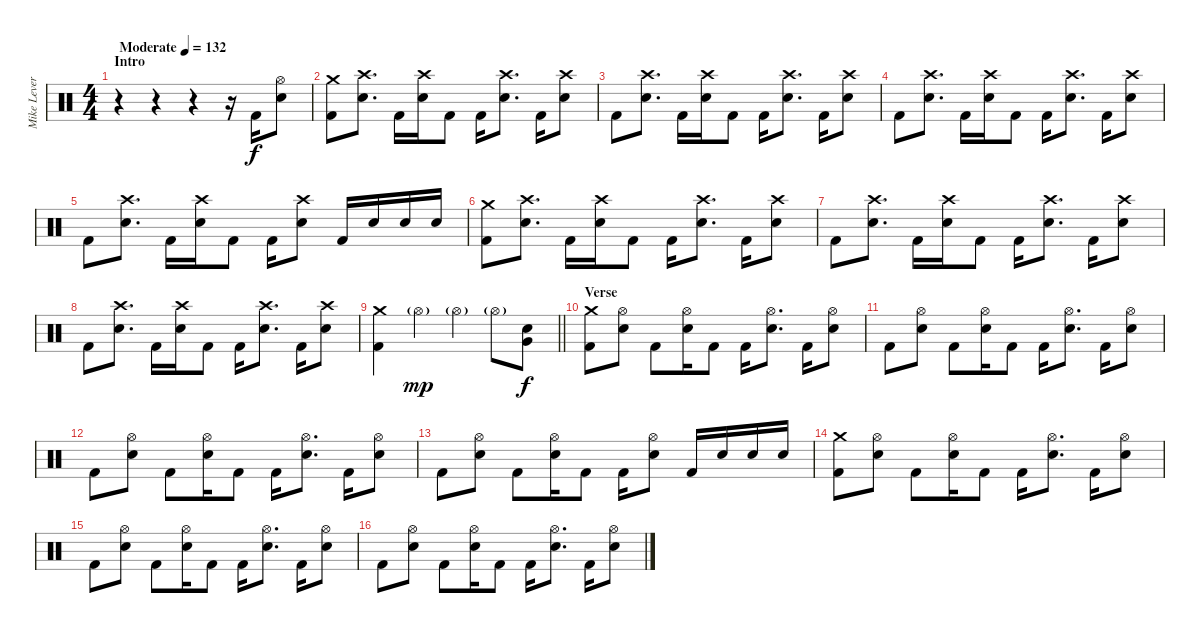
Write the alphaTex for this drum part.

\track ("Mike Leverence - Drums" "Mike Lever") {instrument percussion}
\staff {score}
\articulation defaults
\ts (4 4)
\section ("" "Intro")
\tempo (132 "Moderate")
\clef neutral
\ks c
r.4{dy f} r.4 r.4 r.16 "Kick (hit) 2".16 ("Hi-Hat (open)" "Electric Snare (hit)").8 |
("Crash medium (hit)" "Kick (hit) 2").8 ("Crash high (hit)" "Electric Snare (hit)").8{d} "Kick (hit) 2".16 ("Crash high (hit)" "Electric Snare (hit)").16 "Kick (hit) 2".8 "Kick (hit) 2".16 ("Crash high (hit)" "Electric Snare (hit)").8{d} "Kick (hit) 2".16 ("Crash high (hit)" "Electric Snare (hit)").8 |
"Kick (hit) 2".8 ("Crash high (hit)" "Electric Snare (hit)").8{d} "Kick (hit) 2".16 ("Crash high (hit)" "Electric Snare (hit)").16 "Kick (hit) 2".8 "Kick (hit) 2".16 ("Crash high (hit)" "Electric Snare (hit)").8{d} "Kick (hit) 2".16 ("Crash high (hit)" "Electric Snare (hit)").8 |
"Kick (hit) 2".8 ("Crash high (hit)" "Electric Snare (hit)").8{d} "Kick (hit) 2".16 ("Crash high (hit)" "Electric Snare (hit)").16 "Kick (hit) 2".8 "Kick (hit) 2".16 ("Crash high (hit)" "Electric Snare (hit)").8{d} "Kick (hit) 2".16 ("Crash high (hit)" "Electric Snare (hit)").8 |
"Kick (hit) 2".8 ("Crash high (hit)" "Electric Snare (hit)").8{d} "Kick (hit) 2".16 ("Crash high (hit)" "Electric Snare (hit)").16 "Kick (hit) 2".8 "Kick (hit) 2".16 ("Crash high (hit)" "Electric Snare (hit)").8 "Kick (hit) 2".16 "Electric Snare (hit)".16 "Electric Snare (hit)".16 "Electric Snare (hit)".16 |
("Crash medium (hit)" "Kick (hit) 2").8 ("Crash high (hit)" "Electric Snare (hit)").8{d} "Kick (hit) 2".16 ("Crash high (hit)" "Electric Snare (hit)").16 "Kick (hit) 2".8 "Kick (hit) 2".16 ("Crash high (hit)" "Electric Snare (hit)").8{d} "Kick (hit) 2".16 ("Crash high (hit)" "Electric Snare (hit)").8 |
"Kick (hit) 2".8 ("Crash high (hit)" "Electric Snare (hit)").8{d} "Kick (hit) 2".16 ("Crash high (hit)" "Electric Snare (hit)").16 "Kick (hit) 2".8 "Kick (hit) 2".16 ("Crash high (hit)" "Electric Snare (hit)").8{d} "Kick (hit) 2".16 ("Crash high (hit)" "Electric Snare (hit)").8 |
"Kick (hit) 2".8 ("Crash high (hit)" "Electric Snare (hit)").8{d} "Kick (hit) 2".16 ("Crash high (hit)" "Electric Snare (hit)").16 "Kick (hit) 2".8 "Kick (hit) 2".16 ("Crash high (hit)" "Electric Snare (hit)").8{d} "Kick (hit) 2".16 ("Crash high (hit)" "Electric Snare (hit)").8 |
\barLineRight lightlight
("Crash medium (hit)" "Kick (hit) 2").4 "Hi-Hat (open)"{g}.4{dy mp} "Hi-Hat (open)"{g}.4 "Hi-Hat (open)"{g}.8 ("Electric Snare (hit)" "Very Low Tom (hit)").8{dy f} |
\section ("" "Verse ")
("Crash medium (hit)" "Kick (hit) 2").8 ("Hi-Hat (open)" "Electric Snare (hit)").8 "Kick (hit) 2".8 ("Hi-Hat (open)" "Electric Snare (hit)").16 "Kick (hit) 2".8 "Kick (hit) 2".16 ("Hi-Hat (open)" "Electric Snare (hit)").8{d} "Kick (hit) 2".16 ("Hi-Hat (open)" "Electric Snare (hit)").8 |
"Kick (hit) 2".8 ("Hi-Hat (open)" "Electric Snare (hit)").8 "Kick (hit) 2".8 ("Hi-Hat (open)" "Electric Snare (hit)").16 "Kick (hit) 2".8 "Kick (hit) 2".16 ("Hi-Hat (open)" "Electric Snare (hit)").8{d} "Kick (hit) 2".16 ("Hi-Hat (open)" "Electric Snare (hit)").8 |
"Kick (hit) 2".8 ("Hi-Hat (open)" "Electric Snare (hit)").8 "Kick (hit) 2".8 ("Hi-Hat (open)" "Electric Snare (hit)").16 "Kick (hit) 2".8 "Kick (hit) 2".16 ("Hi-Hat (open)" "Electric Snare (hit)").8{d} "Kick (hit) 2".16 ("Hi-Hat (open)" "Electric Snare (hit)").8 |
"Kick (hit) 2".8 ("Hi-Hat (open)" "Electric Snare (hit)").8 "Kick (hit) 2".8 ("Hi-Hat (open)" "Electric Snare (hit)").16 "Kick (hit) 2".8 "Kick (hit) 2".16 ("Hi-Hat (open)" "Electric Snare (hit)").8 "Kick (hit) 2".16 "Electric Snare (hit)".16 "Electric Snare (hit)".16 "Electric Snare (hit)".16 |
("Crash medium (hit)" "Kick (hit) 2").8 ("Hi-Hat (open)" "Electric Snare (hit)").8 "Kick (hit) 2".8 ("Hi-Hat (open)" "Electric Snare (hit)").16 "Kick (hit) 2".8 "Kick (hit) 2".16 ("Hi-Hat (open)" "Electric Snare (hit)").8{d} "Kick (hit) 2".16 ("Hi-Hat (open)" "Electric Snare (hit)").8 |
"Kick (hit) 2".8 ("Hi-Hat (open)" "Electric Snare (hit)").8 "Kick (hit) 2".8 ("Hi-Hat (open)" "Electric Snare (hit)").16 "Kick (hit) 2".8 "Kick (hit) 2".16 ("Hi-Hat (open)" "Electric Snare (hit)").8{d} "Kick (hit) 2".16 ("Hi-Hat (open)" "Electric Snare (hit)").8 |
"Kick (hit) 2".8 ("Hi-Hat (open)" "Electric Snare (hit)").8 "Kick (hit) 2".8 ("Hi-Hat (open)" "Electric Snare (hit)").16 "Kick (hit) 2".8 "Kick (hit) 2".16 ("Hi-Hat (open)" "Electric Snare (hit)").8{d} "Kick (hit) 2".16 ("Hi-Hat (open)" "Electric Snare (hit)").8
